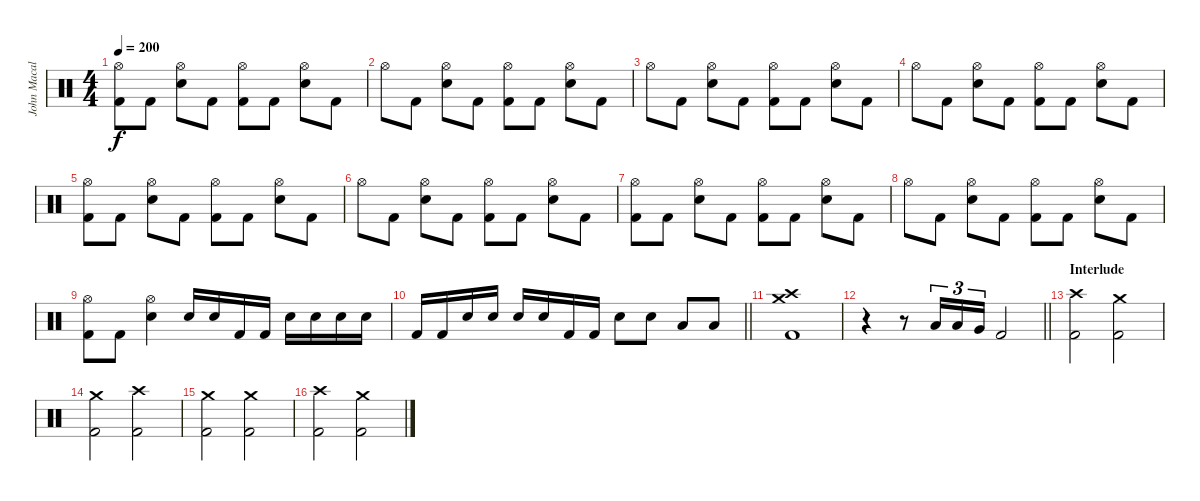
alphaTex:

\track ("John Macaluso" "John Macal") {instrument percussion}
\staff {score}
\articulation defaults
\ts (4 4)
\tempo 200
\clef neutral
\ks c
("Hi-Hat (open)" "Kick (hit) 2").8{dy f} "Kick (hit) 2".8 ("Hi-Hat (open)" "Snare (hit) 2").8 "Kick (hit) 2".8 ("Hi-Hat (open)" "Kick (hit) 2").8 "Kick (hit) 2".8 ("Hi-Hat (open)" "Snare (hit) 2").8 "Kick (hit) 2".8 |
"Hi-Hat (open)".8 "Kick (hit) 2".8 ("Hi-Hat (open)" "Snare (hit) 2").8 "Kick (hit) 2".8 ("Hi-Hat (open)" "Kick (hit) 2").8 "Kick (hit) 2".8 ("Hi-Hat (open)" "Snare (hit) 2").8 "Kick (hit) 2".8 |
"Hi-Hat (open)".8 "Kick (hit) 2".8 ("Hi-Hat (open)" "Snare (hit) 2").8 "Kick (hit) 2".8 ("Hi-Hat (open)" "Kick (hit) 2").8 "Kick (hit) 2".8 ("Hi-Hat (open)" "Snare (hit) 2").8 "Kick (hit) 2".8 |
"Hi-Hat (open)".8 "Kick (hit) 2".8 ("Hi-Hat (open)" "Snare (hit) 2").8 "Kick (hit) 2".8 ("Hi-Hat (open)" "Kick (hit) 2").8 "Kick (hit) 2".8 ("Hi-Hat (open)" "Snare (hit) 2").8 "Kick (hit) 2".8 |
("Hi-Hat (open)" "Kick (hit) 2").8 "Kick (hit) 2".8 ("Hi-Hat (open)" "Snare (hit) 2").8 "Kick (hit) 2".8 ("Hi-Hat (open)" "Kick (hit) 2").8 "Kick (hit) 2".8 ("Hi-Hat (open)" "Snare (hit) 2").8 "Kick (hit) 2".8 |
"Hi-Hat (open)".8 "Kick (hit) 2".8 ("Hi-Hat (open)" "Snare (hit) 2").8 "Kick (hit) 2".8 ("Hi-Hat (open)" "Kick (hit) 2").8 "Kick (hit) 2".8 ("Hi-Hat (open)" "Snare (hit) 2").8 "Kick (hit) 2".8 |
("Hi-Hat (open)" "Kick (hit) 2").8 "Kick (hit) 2".8 ("Hi-Hat (open)" "Snare (hit) 2").8 "Kick (hit) 2".8 ("Hi-Hat (open)" "Kick (hit) 2").8 "Kick (hit) 2".8 ("Hi-Hat (open)" "Snare (hit) 2").8 "Kick (hit) 2".8 |
"Hi-Hat (open)".8 "Kick (hit) 2".8 ("Hi-Hat (open)" "Snare (hit) 2").8 "Kick (hit) 2".8 ("Hi-Hat (open)" "Kick (hit) 2").8 "Kick (hit) 2".8 ("Hi-Hat (open)" "Snare (hit) 2").8 "Kick (hit) 2".8 |
("Hi-Hat (open)" "Kick (hit) 2").8 "Kick (hit) 2".8 ("Hi-Hat (open)" "Snare (hit) 2").4 "Snare (hit) 2".16 "Snare (hit) 2".16 "Kick (hit) 2".16 "Kick (hit) 2".16 "Snare (hit) 2".16 "Snare (hit) 2".16 "Snare (hit) 2".16 "Snare (hit) 2".16 |
\barLineRight lightlight "Kick (hit) 2".16 "Kick (hit) 2".16 "Snare (hit) 2".16 "Snare (hit) 2".16 "Snare (hit) 2".16 "Snare (hit) 2".16 "Kick (hit) 2".16 "Kick (hit) 2".16 "Snare (hit) 2".8 "Snare (hit) 2".8 "Low Tom (hit)".8 "Low Tom (hit)".8
|
("Crash medium (hit)" "Crash high (hit)" "Kick (hit) 2").1 |
\barLineRight lightlight
r.4 r.8 "Low Tom (hit)".16{tu (3 2)} "Low Tom (hit)".16{tu (3 2)} "Very Low Tom (hit)".16{tu (3 2)} "Kick (hit) 2".2 |
\section ("" "Interlude")
("Crash high (hit)" "Kick (hit) 2").2 ("Crash medium (hit)" "Kick (hit) 2").2 |
("Crash medium (hit)" "Kick (hit) 2").2 ("Crash high (hit)" "Kick (hit) 2").2 |
("Crash medium (hit)" "Kick (hit) 2").2 ("Crash medium (hit)" "Kick (hit) 2").2 |
("Crash high (hit)" "Kick (hit) 2").2 ("Crash medium (hit)" "Kick (hit) 2").2
